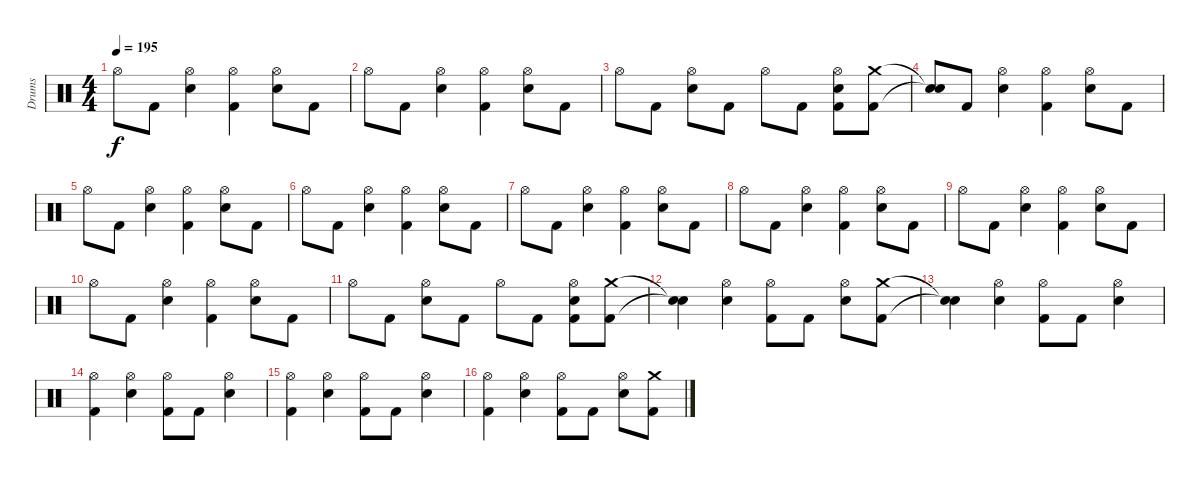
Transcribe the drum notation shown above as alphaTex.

\track ("Drums" "Drums") {instrument percussion}
\staff {score}
\articulation defaults
\ts (4 4)
\tempo 195
\clef neutral
\ks c "Hi-Hat (open)".8{dy f} "Kick (hit) 2".8
("Hi-Hat (open)" "Electric Snare (hit)").4 ("Hi-Hat (open)" "Kick (hit) 2").4 ("Hi-Hat (open)" "Electric Snare (hit)").8 "Kick (hit) 2".8 |
"Hi-Hat (open)".8 "Kick (hit) 2".8 ("Hi-Hat (open)" "Electric Snare (hit)").4 ("Hi-Hat (open)" "Kick (hit) 2").4 ("Hi-Hat (open)" "Electric Snare (hit)").8 "Kick (hit) 2".8 |
"Hi-Hat (open)".8 "Kick (hit) 2".8 ("Hi-Hat (open)" "Electric Snare (hit)").8 "Kick (hit) 2".8 "Hi-Hat (open)".8 "Kick (hit) 2".8 ("Hi-Hat (open)" "Electric Snare (hit)" "Kick (hit) 2").8 ("Crash medium (hit)" "Kick (hit) 2").8 |
\section ("" "")
("Snare (hit)"{t} "Snare (hit)"{t}).8 "Kick (hit) 2".8 ("Hi-Hat (open)" "Electric Snare (hit)").4 ("Hi-Hat (open)" "Kick (hit) 2").4 ("Hi-Hat (open)" "Electric Snare (hit)").8 "Kick (hit) 2".8 |
"Hi-Hat (open)".8 "Kick (hit) 2".8 ("Hi-Hat (open)" "Electric Snare (hit)").4 ("Hi-Hat (open)" "Kick (hit) 2").4 ("Hi-Hat (open)" "Electric Snare (hit)").8 "Kick (hit) 2".8 |
"Hi-Hat (open)".8 "Kick (hit) 2".8 ("Hi-Hat (open)" "Electric Snare (hit)").4 ("Hi-Hat (open)" "Kick (hit) 2").4 ("Hi-Hat (open)" "Electric Snare (hit)").8 "Kick (hit) 2".8 |
"Hi-Hat (open)".8 "Kick (hit) 2".8 ("Hi-Hat (open)" "Electric Snare (hit)").4 ("Hi-Hat (open)" "Kick (hit) 2").4 ("Hi-Hat (open)" "Electric Snare (hit)").8 "Kick (hit) 2".8 |
\section ("" "")
"Hi-Hat (open)".8 "Kick (hit) 2".8 ("Hi-Hat (open)" "Electric Snare (hit)").4 ("Hi-Hat (open)" "Kick (hit) 2").4 ("Hi-Hat (open)" "Electric Snare (hit)").8 "Kick (hit) 2".8 |
"Hi-Hat (open)".8 "Kick (hit) 2".8 ("Hi-Hat (open)" "Electric Snare (hit)").4 ("Hi-Hat (open)" "Kick (hit) 2").4 ("Hi-Hat (open)" "Electric Snare (hit)").8 "Kick (hit) 2".8 |
"Hi-Hat (open)".8 "Kick (hit) 2".8 ("Hi-Hat (open)" "Electric Snare (hit)").4 ("Hi-Hat (open)" "Kick (hit) 2").4 ("Hi-Hat (open)" "Electric Snare (hit)").8 "Kick (hit) 2".8 |
"Hi-Hat (open)".8 "Kick (hit) 2".8 ("Hi-Hat (open)" "Electric Snare (hit)").8 "Kick (hit) 2".8 "Hi-Hat (open)".8 "Kick (hit) 2".8 ("Hi-Hat (open)" "Electric Snare (hit)" "Kick (hit) 2").8 ("Crash medium (hit)" "Kick (hit) 2").8 |
("Snare (hit)"{t} "Snare (hit)"{t}).4 ("Hi-Hat (open)" "Electric Snare (hit)").4 ("Hi-Hat (open)" "Kick (hit) 2").8 "Kick (hit) 2".8 ("Hi-Hat (open)" "Electric Snare (hit)").8 ("Crash medium (hit)" "Kick (hit) 2").8 |
("Snare (hit)"{t} "Snare (hit)"{t}).4 ("Hi-Hat (open)" "Electric Snare (hit)").4 ("Hi-Hat (open)" "Kick (hit) 2").8 "Kick (hit) 2".8 ("Hi-Hat (open)" "Electric Snare (hit)").4 |
("Hi-Hat (open)" "Kick (hit) 2").4 ("Hi-Hat (open)" "Electric Snare (hit)").4 ("Hi-Hat (open)" "Kick (hit) 2").8 "Kick (hit) 2".8 ("Hi-Hat (open)" "Electric Snare (hit)").4 |
("Hi-Hat (open)" "Kick (hit) 2").4 ("Hi-Hat (open)" "Electric Snare (hit)").4 ("Hi-Hat (open)" "Kick (hit) 2").8 "Kick (hit) 2".8 ("Hi-Hat (open)" "Electric Snare (hit)").4 |
("Hi-Hat (open)" "Kick (hit) 2").4 ("Hi-Hat (open)" "Electric Snare (hit)").4 ("Hi-Hat (open)" "Kick (hit) 2").8 "Kick (hit) 2".8 ("Hi-Hat (open)" "Electric Snare (hit)").8 ("Crash medium (hit)" "Kick (hit) 2").8
